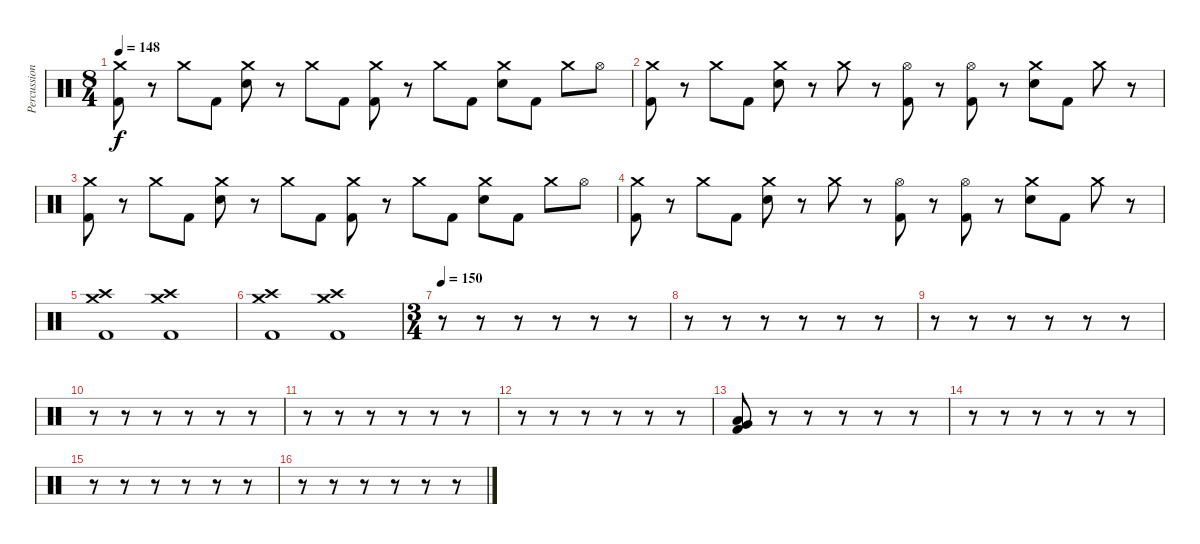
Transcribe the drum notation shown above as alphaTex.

\track ("Percussion" "Percussion") {instrument percussion}
\staff {score}
\articulation defaults
\ts (8 4)
\tempo 148
\clef neutral
\ks c
("Crash medium (hit)" "Kick (hit) 2").8{dy f} r.8 "Crash medium (hit)".8 "Kick (hit) 2".8 ("Crash medium (hit)" "Electric Snare (hit)").8 r.8 "Crash medium (hit)".8 "Kick (hit) 2".8 ("Crash medium (hit)" "Kick (hit) 2").8 r.8 "Crash medium (hit)".8 "Kick (hit) 2".8 ("Crash medium (hit)" "Electric Snare (hit)").8 "Kick (hit) 2".8 "Crash medium (hit)".8 "Hi-Hat (open)".8 |
("Crash medium (hit)" "Kick (hit) 2").8 r.8 "Crash medium (hit)".8 "Kick (hit) 2".8 ("Crash medium (hit)" "Electric Snare (hit)").8 r.8 "Crash medium (hit)".8 r.8 ("Hi-Hat (open)" "Kick (hit) 2").8 r.8 ("Hi-Hat (open)" "Kick (hit) 2").8 r.8 ("Crash medium (hit)" "Electric Snare (hit)").8 "Kick (hit) 2".8 "Crash medium (hit)".8 r.8 |
("Crash medium (hit)" "Kick (hit) 2").8 r.8 "Crash medium (hit)".8 "Kick (hit) 2".8 ("Crash medium (hit)" "Electric Snare (hit)").8 r.8 "Crash medium (hit)".8 "Kick (hit) 2".8 ("Crash medium (hit)" "Kick (hit) 2").8 r.8 "Crash medium (hit)".8 "Kick (hit) 2".8 ("Crash medium (hit)" "Electric Snare (hit)").8 "Kick (hit) 2".8 "Crash medium (hit)".8 "Hi-Hat (open)".8 |
("Crash medium (hit)" "Kick (hit) 2").8 r.8 "Crash medium (hit)".8 "Kick (hit) 2".8 ("Crash medium (hit)" "Electric Snare (hit)").8 r.8 "Crash medium (hit)".8 r.8 ("Hi-Hat (open)" "Kick (hit) 2").8 r.8 ("Hi-Hat (open)" "Kick (hit) 2").8 r.8 ("Crash medium (hit)" "Electric Snare (hit)").8 "Kick (hit) 2".8 "Crash medium (hit)".8 r.8 |
("Crash high (hit)" "Crash medium (hit)" "Kick (hit) 2").1 ("Crash high (hit)" "Crash medium (hit)" "Kick (hit) 2").1 |
("Crash high (hit)" "Crash medium (hit)" "Kick (hit) 2").1 ("Crash high (hit)" "Crash medium (hit)" "Kick (hit) 2").1 |
\ts (3 4)
\tempo 150
r.8 r.8 r.8 r.8 r.8 r.8 |
r.8 r.8 r.8 r.8 r.8 r.8 |
r.8 r.8 r.8 r.8 r.8 r.8 |
r.8 r.8 r.8 r.8 r.8 r.8 |
r.8 r.8 r.8 r.8 r.8 r.8 |
r.8 r.8 r.8 r.8 r.8 r.8 |
("Very Low Tom (hit)" "Low Floor Tom (hit)" "Kick (hit) 2").8 r.8 r.8 r.8 r.8 r.8 |
r.8 r.8 r.8 r.8 r.8 r.8 |
r.8 r.8 r.8 r.8 r.8 r.8 |
r.8 r.8 r.8 r.8 r.8 r.8
